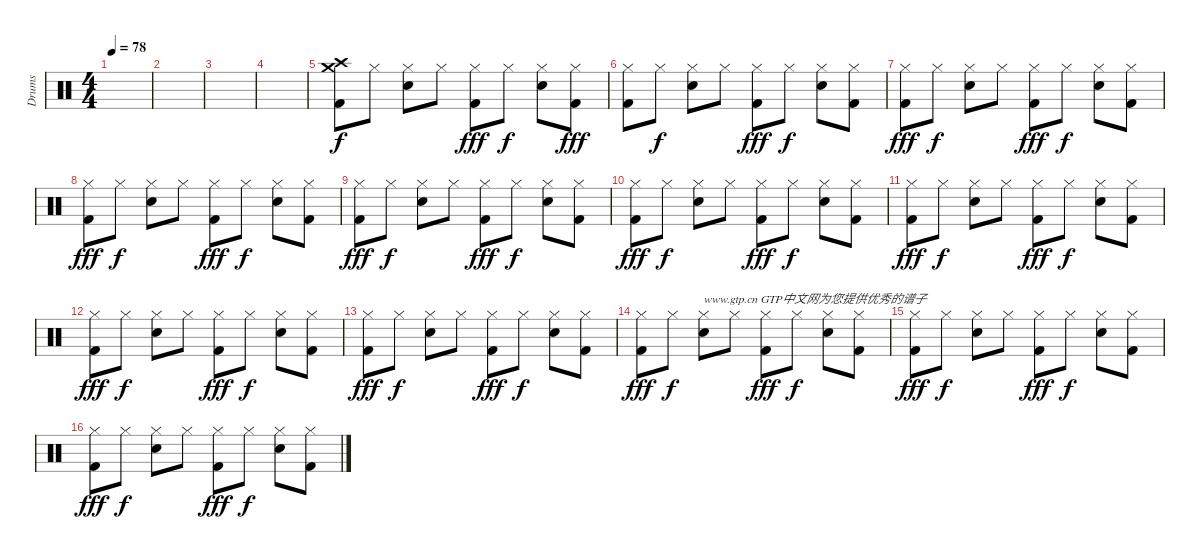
\track ("Drums" "Drums") {instrument percussion}
\staff {score}
\articulation defaults
\ts (4 4)
\tempo 78
\clef neutral
\ks c
|
|
|
|
("Crash medium (hit)" "Crash high (hit)" "Kick (hit) 2").8 "Hi-Hat (closed)".8{dy f} ("Hi-Hat (closed)" "Snare (hit) 2").8 "Hi-Hat (closed)".8 ("Hi-Hat (closed)" "Kick (hit) 2").8{dy fff} "Hi-Hat (closed)".8{dy f} ("Hi-Hat (closed)" "Snare (hit) 2").8 ("Hi-Hat (closed)" "Kick (hit) 2").8{dy fff} |
("Hi-Hat (closed)" "Kick (hit) 2").8 "Hi-Hat (closed)".8{dy f} ("Hi-Hat (closed)" "Snare (hit) 2").8 "Hi-Hat (closed)".8 ("Hi-Hat (closed)" "Kick (hit) 2").8{dy fff} "Hi-Hat (closed)".8{dy f} ("Hi-Hat (closed)" "Snare (hit) 2").8 ("Hi-Hat (closed)" "Kick (hit) 2").8 |
("Hi-Hat (closed)" "Kick (hit) 2").8{dy fff} "Hi-Hat (closed)".8{dy f} ("Hi-Hat (closed)" "Snare (hit) 2").8 "Hi-Hat (closed)".8 ("Hi-Hat (closed)" "Kick (hit) 2").8{dy fff} "Hi-Hat (closed)".8{dy f} ("Hi-Hat (closed)" "Snare (hit) 2").8 ("Hi-Hat (closed)" "Kick (hit) 2").8 |
("Hi-Hat (closed)" "Kick (hit) 2").8{dy fff} "Hi-Hat (closed)".8{dy f} ("Hi-Hat (closed)" "Snare (hit) 2").8 "Hi-Hat (closed)".8 ("Hi-Hat (closed)" "Kick (hit) 2").8{dy fff} "Hi-Hat (closed)".8{dy f} ("Hi-Hat (closed)" "Snare (hit) 2").8 ("Hi-Hat (closed)" "Kick (hit) 2").8 |
("Hi-Hat (closed)" "Kick (hit) 2").8{dy fff} "Hi-Hat (closed)".8{dy f} ("Hi-Hat (closed)" "Snare (hit) 2").8 "Hi-Hat (closed)".8 ("Hi-Hat (closed)" "Kick (hit) 2").8{dy fff} "Hi-Hat (closed)".8{dy f} ("Hi-Hat (closed)" "Snare (hit) 2").8 ("Hi-Hat (closed)" "Kick (hit) 2").8 |
("Hi-Hat (closed)" "Kick (hit) 2").8{dy fff} "Hi-Hat (closed)".8{dy f} ("Hi-Hat (closed)" "Snare (hit) 2").8 "Hi-Hat (closed)".8 ("Hi-Hat (closed)" "Kick (hit) 2").8{dy fff} "Hi-Hat (closed)".8{dy f} ("Hi-Hat (closed)" "Snare (hit) 2").8 ("Hi-Hat (closed)" "Kick (hit) 2").8 |
("Hi-Hat (closed)" "Kick (hit) 2").8{dy fff} "Hi-Hat (closed)".8{dy f} ("Hi-Hat (closed)" "Snare (hit) 2").8 "Hi-Hat (closed)".8 ("Hi-Hat (closed)" "Kick (hit) 2").8{dy fff} "Hi-Hat (closed)".8{dy f} ("Hi-Hat (closed)" "Snare (hit) 2").8 ("Hi-Hat (closed)" "Kick (hit) 2").8 |
("Hi-Hat (closed)" "Kick (hit) 2").8{dy fff} "Hi-Hat (closed)".8{dy f} ("Hi-Hat (closed)" "Snare (hit) 2").8 "Hi-Hat (closed)".8 ("Hi-Hat (closed)" "Kick (hit) 2").8{dy fff} "Hi-Hat (closed)".8{dy f} ("Hi-Hat (closed)" "Snare (hit) 2").8 ("Hi-Hat (closed)" "Kick (hit) 2").8 |
("Hi-Hat (closed)" "Kick (hit) 2").8{dy fff} "Hi-Hat (closed)".8{dy f} ("Hi-Hat (closed)" "Snare (hit) 2").8 "Hi-Hat (closed)".8 ("Hi-Hat (closed)" "Kick (hit) 2").8{dy fff} "Hi-Hat (closed)".8{dy f} ("Hi-Hat (closed)" "Snare (hit) 2").8 ("Hi-Hat (closed)" "Kick (hit) 2").8 |
("Hi-Hat (closed)" "Kick (hit) 2").8{dy fff} "Hi-Hat (closed)".8{dy f} ("Hi-Hat (closed)" "Snare (hit) 2").8{txt "www.gtp.cn GTP中文网为您提供优秀的谱子"} "Hi-Hat (closed)".8 ("Hi-Hat (closed)" "Kick (hit) 2").8{dy fff} "Hi-Hat (closed)".8{dy f} ("Hi-Hat (closed)" "Snare (hit) 2").8 ("Hi-Hat (closed)" "Kick (hit) 2").8 |
("Hi-Hat (closed)" "Kick (hit) 2").8{dy fff} "Hi-Hat (closed)".8{dy f} ("Hi-Hat (closed)" "Snare (hit) 2").8 "Hi-Hat (closed)".8 ("Hi-Hat (closed)" "Kick (hit) 2").8{dy fff} "Hi-Hat (closed)".8{dy f} ("Hi-Hat (closed)" "Snare (hit) 2").8 ("Hi-Hat (closed)" "Kick (hit) 2").8 |
("Hi-Hat (closed)" "Kick (hit) 2").8{dy fff} "Hi-Hat (closed)".8{dy f} ("Hi-Hat (closed)" "Snare (hit) 2").8 "Hi-Hat (closed)".8 ("Hi-Hat (closed)" "Kick (hit) 2").8{dy fff} "Hi-Hat (closed)".8{dy f} ("Hi-Hat (closed)" "Snare (hit) 2").8 ("Hi-Hat (closed)" "Kick (hit) 2").8
